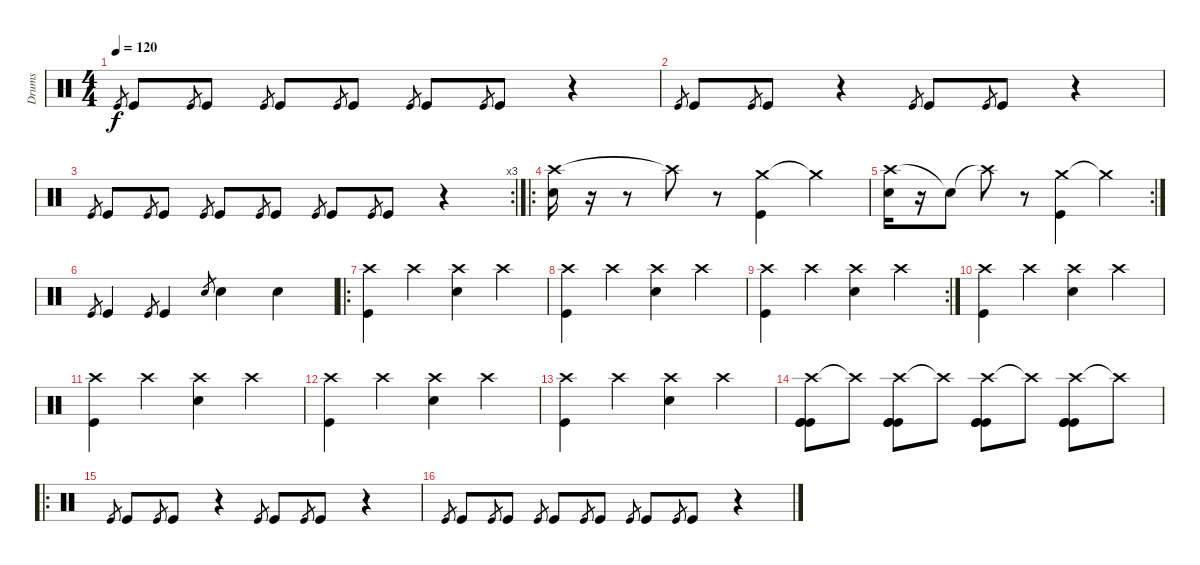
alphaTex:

\track ("Drums" "Drums") {instrument percussion}
\staff {score}
\articulation defaults
\ts (4 4)
\tempo 120
\clef neutral
\ks c "Kick (hit)".8{gr dy f} "Kick (hit)".8 "Kick (hit)".8{gr} "Kick (hit)".8 "Kick (hit)".8{gr} "Kick (hit)".8 "Kick (hit)".8{gr} "Kick (hit)".8 "Kick (hit)".8{gr} "Kick (hit)".8 "Kick (hit)".8{gr} "Kick (hit)".8
r.4 |
"Kick (hit)".8{gr} "Kick (hit)".8 "Kick (hit)".8{gr} "Kick (hit)".8 r.4 "Kick (hit)".8{gr} "Kick (hit)".8 "Kick (hit)".8{gr} "Kick (hit)".8 r.4 |
\rc 3 "Kick (hit)".8{gr} "Kick (hit)".8 "Kick (hit)".8{gr} "Kick (hit)".8 "Kick (hit)".8{gr} "Kick (hit)".8 "Kick (hit)".8{gr} "Kick (hit)".8 "Kick (hit)".8{gr} "Kick (hit)".8 "Kick (hit)".8{gr} "Kick (hit)".8
r.4 |
\ro
("Crash high (hit)" "Electric Snare (hit)").16 r.16 r.8 "Crash high (hit)"{t}.8 r.8 ("Crash medium (hit)" "Kick (hit)").4 "Crash medium (hit)"{t}.4 |
\rc 2
("Crash high (hit)" "Electric Snare (hit)").16 r.16 "Snare (hit)"{t}.8 "Crash high (hit)"{t}.8 r.8 ("Crash medium (hit)" "Kick (hit)").4 "Crash medium (hit)"{t}.4 |
"Kick (hit)".8{gr} "Kick (hit)".4 "Kick (hit)".8{gr} "Kick (hit)".4 "Electric Snare (hit)".8{gr} "Electric Snare (hit)".4 "Electric Snare (hit)".4 |
\ro
("Crash high (hit)" "Kick (hit)").4 "Crash high (hit)".4 ("Crash high (hit)" "Electric Snare (hit)").4 "Crash high (hit)".4 |
("Crash high (hit)" "Kick (hit)").4 "Crash high (hit)".4 ("Crash high (hit)" "Electric Snare (hit)").4 "Crash high (hit)".4 |
\rc 2
("Crash high (hit)" "Kick (hit)").4 "Crash high (hit)".4 ("Crash high (hit)" "Electric Snare (hit)").4 "Crash high (hit)".4 |
("Crash high (hit)" "Kick (hit)").4 "Crash high (hit)".4 ("Crash high (hit)" "Electric Snare (hit)").4 "Crash high (hit)".4 |
("Crash high (hit)" "Kick (hit)").4 "Crash high (hit)".4 ("Crash high (hit)" "Electric Snare (hit)").4 "Crash high (hit)".4 |
("Crash high (hit)" "Kick (hit)").4 "Crash high (hit)".4 ("Crash high (hit)" "Electric Snare (hit)").4 "Crash high (hit)".4 |
("Crash high (hit)" "Kick (hit)").4 "Crash high (hit)".4 ("Crash high (hit)" "Electric Snare (hit)").4 "Crash high (hit)".4 |
("Crash high (hit)" "Kick (hit)" "Kick (hit)" "Kick (hit)").8 "Crash high (hit)"{t}.8 ("Crash high (hit)" "Kick (hit)" "Kick (hit)" "Kick (hit)").8 "Crash high (hit)"{t}.8 ("Crash high (hit)" "Kick (hit)" "Kick (hit)" "Kick (hit)").8 "Crash high (hit)"{t}.8 ("Crash high (hit)" "Kick (hit)" "Kick (hit)" "Kick (hit)").8 "Crash high (hit)"{t}.8 |
\ro "Kick (hit)".8{gr} "Kick (hit)".8 "Kick (hit)".8{gr} "Kick (hit)".8
r.4 "Kick (hit)".8{gr} "Kick (hit)".8 "Kick (hit)".8{gr} "Kick (hit)".8 r.4 |
"Kick (hit)".8{gr} "Kick (hit)".8 "Kick (hit)".8{gr} "Kick (hit)".8 "Kick (hit)".8{gr} "Kick (hit)".8 "Kick (hit)".8{gr} "Kick (hit)".8 "Kick (hit)".8{gr} "Kick (hit)".8 "Kick (hit)".8{gr} "Kick (hit)".8 r.4
